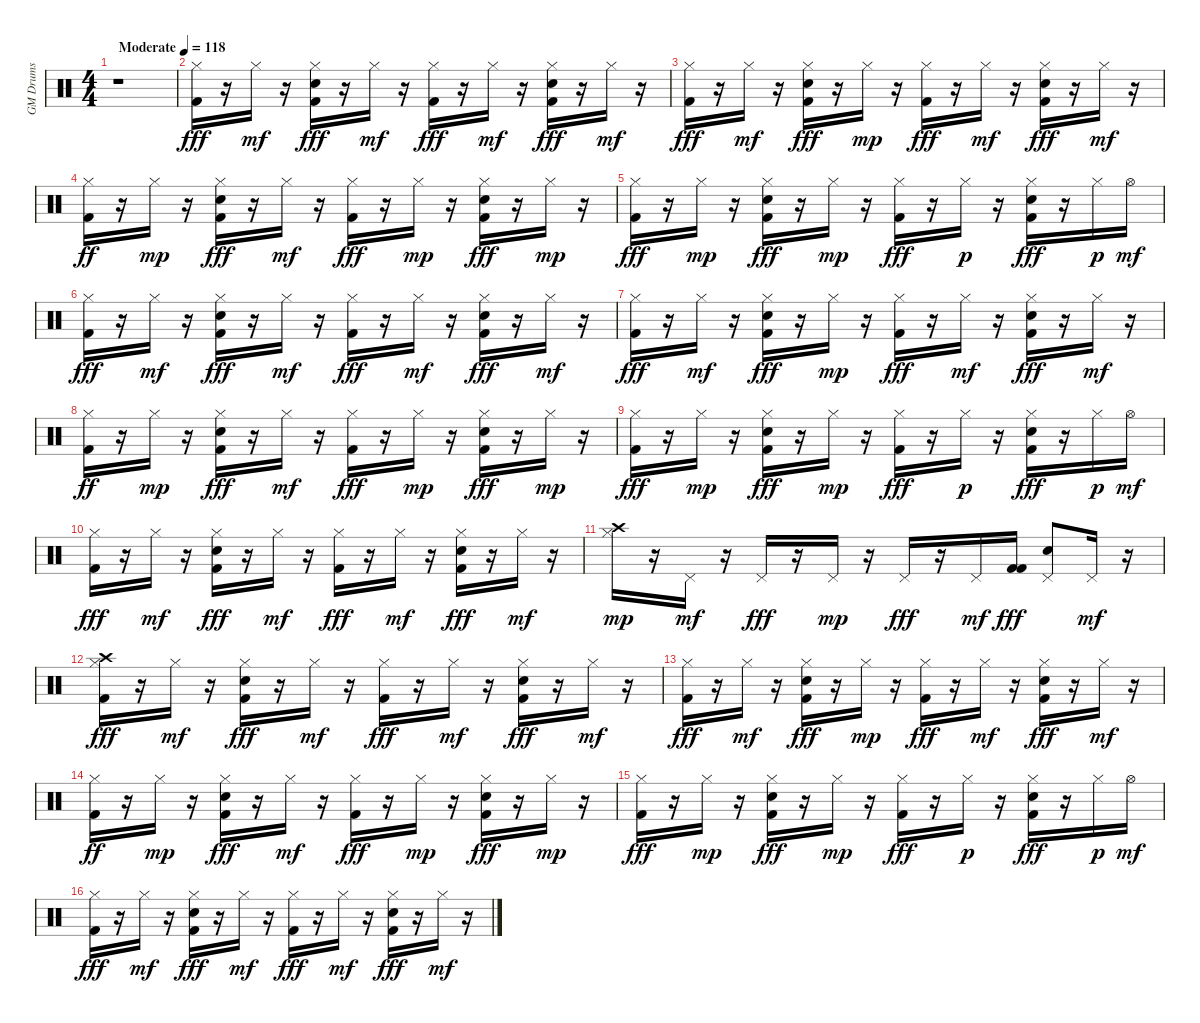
\track ("GM Drums" "GM Drums") {instrument percussion}
\staff {score}
\articulation defaults
\ts (4 4)
\tempo (118 "Moderate")
\clef neutral
\ks c
r.1{dy fff} |
("Kick (hit) 2" "Hi-Hat (closed)").16 r.16 "Hi-Hat (closed)".16{dy mf} r.16 ("Hi-Hat (closed)" "Kick (hit) 2" "Electric Snare (hit)").16{dy fff} r.16 "Hi-Hat (closed)".16{dy mf} r.16 ("Hi-Hat (closed)" "Kick (hit) 2").16{dy fff} r.16 "Hi-Hat (closed)".16{dy mf} r.16 ("Hi-Hat (closed)" "Kick (hit) 2" "Electric Snare (hit)").16{dy fff} r.16 "Hi-Hat (closed)".16{dy mf} r.16 |
("Hi-Hat (closed)" "Kick (hit) 2").16{dy fff} r.16 "Hi-Hat (closed)".16{dy mf} r.16 ("Hi-Hat (closed)" "Kick (hit) 2" "Electric Snare (hit)").16{dy fff} r.16 "Hi-Hat (closed)".16{dy mp} r.16 ("Hi-Hat (closed)" "Kick (hit) 2").16{dy fff} r.16 "Hi-Hat (closed)".16{dy mf} r.16 ("Hi-Hat (closed)" "Kick (hit) 2" "Electric Snare (hit)").16{dy fff} r.16 "Hi-Hat (closed)".16{dy mf} r.16 |
("Hi-Hat (closed)" "Kick (hit) 2").16{dy ff} r.16 "Hi-Hat (closed)".16{dy mp} r.16 ("Hi-Hat (closed)" "Kick (hit) 2" "Electric Snare (hit)").16{dy fff} r.16 "Hi-Hat (closed)".16{dy mf} r.16 ("Hi-Hat (closed)" "Kick (hit) 2").16{dy fff} r.16 "Hi-Hat (closed)".16{dy mp} r.16 ("Hi-Hat (closed)" "Kick (hit) 2" "Electric Snare (hit)").16{dy fff} r.16 "Hi-Hat (closed)".16{dy mp} r.16 |
("Hi-Hat (closed)" "Kick (hit) 2").16{dy fff} r.16 "Hi-Hat (closed)".16{dy mp} r.16 ("Hi-Hat (closed)" "Kick (hit) 2" "Electric Snare (hit)").16{dy fff} r.16 "Hi-Hat (closed)".16{dy mp} r.16 ("Hi-Hat (closed)" "Kick (hit) 2").16{dy fff} r.16 "Hi-Hat (closed)".16{dy p} r.16 ("Hi-Hat (closed)" "Kick (hit) 2" "Electric Snare (hit)").16{dy fff} r.16 "Hi-Hat (closed)".16{dy p} "Hi-Hat (open)".16{dy mf} |
("Kick (hit) 2" "Hi-Hat (closed)").16{dy fff} r.16 "Hi-Hat (closed)".16{dy mf} r.16 ("Hi-Hat (closed)" "Kick (hit) 2" "Electric Snare (hit)").16{dy fff} r.16 "Hi-Hat (closed)".16{dy mf} r.16 ("Hi-Hat (closed)" "Kick (hit) 2").16{dy fff} r.16 "Hi-Hat (closed)".16{dy mf} r.16 ("Hi-Hat (closed)" "Kick (hit) 2" "Electric Snare (hit)").16{dy fff} r.16 "Hi-Hat (closed)".16{dy mf} r.16 |
("Hi-Hat (closed)" "Kick (hit) 2").16{dy fff} r.16 "Hi-Hat (closed)".16{dy mf} r.16 ("Hi-Hat (closed)" "Kick (hit) 2" "Electric Snare (hit)").16{dy fff} r.16 "Hi-Hat (closed)".16{dy mp} r.16 ("Hi-Hat (closed)" "Kick (hit) 2").16{dy fff} r.16 "Hi-Hat (closed)".16{dy mf} r.16 ("Hi-Hat (closed)" "Kick (hit) 2" "Electric Snare (hit)").16{dy fff} r.16 "Hi-Hat (closed)".16{dy mf} r.16 |
("Hi-Hat (closed)" "Kick (hit) 2").16{dy ff} r.16 "Hi-Hat (closed)".16{dy mp} r.16 ("Hi-Hat (closed)" "Kick (hit) 2" "Electric Snare (hit)").16{dy fff} r.16 "Hi-Hat (closed)".16{dy mf} r.16 ("Hi-Hat (closed)" "Kick (hit) 2").16{dy fff} r.16 "Hi-Hat (closed)".16{dy mp} r.16 ("Hi-Hat (closed)" "Kick (hit) 2" "Electric Snare (hit)").16{dy fff} r.16 "Hi-Hat (closed)".16{dy mp} r.16 |
("Hi-Hat (closed)" "Kick (hit) 2").16{dy fff} r.16 "Hi-Hat (closed)".16{dy mp} r.16 ("Hi-Hat (closed)" "Kick (hit) 2" "Electric Snare (hit)").16{dy fff} r.16 "Hi-Hat (closed)".16{dy mp} r.16 ("Hi-Hat (closed)" "Kick (hit) 2").16{dy fff} r.16 "Hi-Hat (closed)".16{dy p} r.16 ("Hi-Hat (closed)" "Kick (hit) 2" "Electric Snare (hit)").16{dy fff} r.16 "Hi-Hat (closed)".16{dy p} "Hi-Hat (open)".16{dy mf} |
("Kick (hit) 2" "Hi-Hat (closed)").16{dy fff} r.16 "Hi-Hat (closed)".16{dy mf} r.16 ("Hi-Hat (closed)" "Kick (hit) 2" "Electric Snare (hit)").16{dy fff} r.16 "Hi-Hat (closed)".16{dy mf} r.16 ("Hi-Hat (closed)" "Kick (hit) 2").16{dy fff} r.16 "Hi-Hat (closed)".16{dy mf} r.16 ("Hi-Hat (closed)" "Kick (hit) 2" "Electric Snare (hit)").16{dy fff} r.16 "Hi-Hat (closed)".16{dy mf} r.16 |
("Hi-Hat (closed)" "Crash high (hit)").16{dy mp} r.16 "Pedal Hi-Hat (hit)".16{dy mf} r.16 "Pedal Hi-Hat (hit)".16{dy fff} r.16 "Pedal Hi-Hat (hit)".16{dy mp} r.16 "Pedal Hi-Hat (hit)".16{dy fff} r.16 "Pedal Hi-Hat (hit)".16{dy mf} ("Kick (hit) 2" "Kick (hit) 2").16{dy fff} ("Pedal Hi-Hat (hit)" "Electric Snare (hit)").8 "Pedal Hi-Hat (hit)".16{dy mf} r.16 |
("Crash high (hit)" "Kick (hit) 2" "Hi-Hat (closed)").16{dy fff} r.16 "Hi-Hat (closed)".16{dy mf} r.16 ("Hi-Hat (closed)" "Kick (hit) 2" "Electric Snare (hit)").16{dy fff} r.16 "Hi-Hat (closed)".16{dy mf} r.16 ("Hi-Hat (closed)" "Kick (hit) 2").16{dy fff} r.16 "Hi-Hat (closed)".16{dy mf} r.16 ("Hi-Hat (closed)" "Kick (hit) 2" "Electric Snare (hit)").16{dy fff} r.16 "Hi-Hat (closed)".16{dy mf} r.16 |
("Hi-Hat (closed)" "Kick (hit) 2").16{dy fff} r.16 "Hi-Hat (closed)".16{dy mf} r.16 ("Hi-Hat (closed)" "Kick (hit) 2" "Electric Snare (hit)").16{dy fff} r.16 "Hi-Hat (closed)".16{dy mp} r.16 ("Hi-Hat (closed)" "Kick (hit) 2").16{dy fff} r.16 "Hi-Hat (closed)".16{dy mf} r.16 ("Hi-Hat (closed)" "Kick (hit) 2" "Electric Snare (hit)").16{dy fff} r.16 "Hi-Hat (closed)".16{dy mf} r.16 |
("Hi-Hat (closed)" "Kick (hit) 2").16{dy ff} r.16 "Hi-Hat (closed)".16{dy mp} r.16 ("Hi-Hat (closed)" "Kick (hit) 2" "Electric Snare (hit)").16{dy fff} r.16 "Hi-Hat (closed)".16{dy mf} r.16 ("Hi-Hat (closed)" "Kick (hit) 2").16{dy fff} r.16 "Hi-Hat (closed)".16{dy mp} r.16 ("Hi-Hat (closed)" "Kick (hit) 2" "Electric Snare (hit)").16{dy fff} r.16 "Hi-Hat (closed)".16{dy mp} r.16 |
("Hi-Hat (closed)" "Kick (hit) 2").16{dy fff} r.16 "Hi-Hat (closed)".16{dy mp} r.16 ("Hi-Hat (closed)" "Kick (hit) 2" "Electric Snare (hit)").16{dy fff} r.16 "Hi-Hat (closed)".16{dy mp} r.16 ("Hi-Hat (closed)" "Kick (hit) 2").16{dy fff} r.16 "Hi-Hat (closed)".16{dy p} r.16 ("Hi-Hat (closed)" "Kick (hit) 2" "Electric Snare (hit)").16{dy fff} r.16 "Hi-Hat (closed)".16{dy p} "Hi-Hat (open)".16{dy mf} |
("Kick (hit) 2" "Hi-Hat (closed)").16{dy fff} r.16 "Hi-Hat (closed)".16{dy mf} r.16 ("Hi-Hat (closed)" "Kick (hit) 2" "Electric Snare (hit)").16{dy fff} r.16 "Hi-Hat (closed)".16{dy mf} r.16 ("Hi-Hat (closed)" "Kick (hit) 2").16{dy fff} r.16 "Hi-Hat (closed)".16{dy mf} r.16 ("Hi-Hat (closed)" "Kick (hit) 2" "Electric Snare (hit)").16{dy fff} r.16 "Hi-Hat (closed)".16{dy mf} r.16
